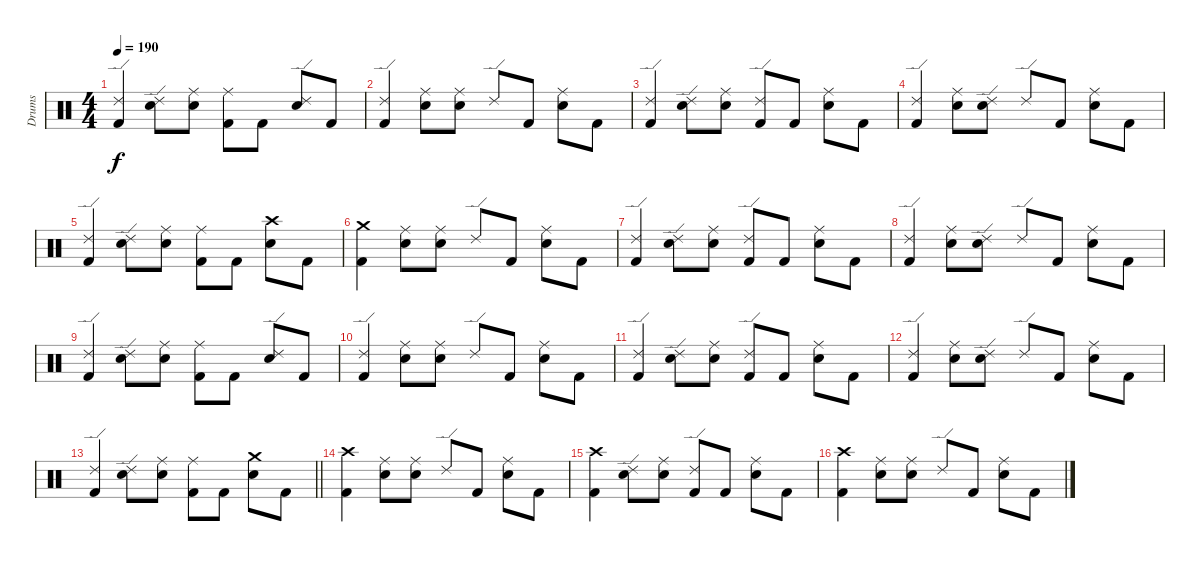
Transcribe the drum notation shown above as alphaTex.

\track ("Drums" "Drums") {instrument percussion}
\staff {score}
\articulation defaults
\ts (4 4)
\tempo 190
\clef neutral
\ks c
("Ride (edge) 2" "Kick (hit) 2").4{dy f} ("Ride (edge) 2" "Electric Snare (hit)").8 ("Ride (middle)" "Electric Snare (hit)").8 ("Ride (middle)" "Kick (hit) 2").8 "Kick (hit) 2".8 ("Ride (edge) 2" "Electric Snare (hit)").8 "Kick (hit) 2".8 |
("Ride (edge) 2" "Kick (hit) 2").4 ("Ride (middle)" "Electric Snare (hit)").8 ("Ride (middle)" "Electric Snare (hit)").8 "Ride (edge) 2".8 "Kick (hit) 2".8 ("Ride (middle)" "Electric Snare (hit)").8 "Kick (hit) 2".8 |
("Ride (edge) 2" "Kick (hit) 2").4 ("Ride (edge) 2" "Electric Snare (hit)").8 ("Ride (middle)" "Electric Snare (hit)").8 ("Ride (edge) 2" "Kick (hit) 2").8 "Kick (hit) 2".8 ("Ride (middle)" "Electric Snare (hit)").8 "Kick (hit) 2".8 |
("Ride (edge) 2" "Kick (hit) 2").4 ("Ride (middle)" "Electric Snare (hit)").8 ("Ride (edge) 2" "Electric Snare (hit)").8 "Ride (edge) 2".8 "Kick (hit) 2".8 ("Ride (middle)" "Electric Snare (hit)").8 "Kick (hit) 2".8 |
("Ride (edge) 2" "Kick (hit) 2").4 ("Ride (edge) 2" "Electric Snare (hit)").8 ("Ride (middle)" "Electric Snare (hit)").8 ("Ride (middle)" "Kick (hit) 2").8 "Kick (hit) 2".8 ("Crash high (hit)" "Electric Snare (hit)").8 "Kick (hit) 2".8 |
("Crash medium (hit)" "Kick (hit) 2").4 ("Ride (middle)" "Electric Snare (hit)").8 ("Ride (middle)" "Electric Snare (hit)").8 "Ride (edge) 2".8 "Kick (hit) 2".8 ("Ride (middle)" "Electric Snare (hit)").8 "Kick (hit) 2".8 |
("Ride (edge) 2" "Kick (hit) 2").4 ("Ride (edge) 2" "Electric Snare (hit)").8 ("Ride (middle)" "Electric Snare (hit)").8 ("Ride (edge) 2" "Kick (hit) 2").8 "Kick (hit) 2".8 ("Ride (middle)" "Electric Snare (hit)").8 "Kick (hit) 2".8 |
("Ride (edge) 2" "Kick (hit) 2").4 ("Ride (middle)" "Electric Snare (hit)").8 ("Ride (edge) 2" "Electric Snare (hit)").8 "Ride (edge) 2".8 "Kick (hit) 2".8 ("Ride (middle)" "Electric Snare (hit)").8 "Kick (hit) 2".8 |
("Ride (edge) 2" "Kick (hit) 2").4 ("Ride (edge) 2" "Electric Snare (hit)").8 ("Ride (middle)" "Electric Snare (hit)").8 ("Ride (middle)" "Kick (hit) 2").8 "Kick (hit) 2".8 ("Ride (edge) 2" "Electric Snare (hit)").8 "Kick (hit) 2".8 |
("Ride (edge) 2" "Kick (hit) 2").4 ("Ride (middle)" "Electric Snare (hit)").8 ("Ride (middle)" "Electric Snare (hit)").8 "Ride (edge) 2".8 "Kick (hit) 2".8 ("Ride (middle)" "Electric Snare (hit)").8 "Kick (hit) 2".8 |
("Ride (edge) 2" "Kick (hit) 2").4 ("Ride (edge) 2" "Electric Snare (hit)").8 ("Ride (middle)" "Electric Snare (hit)").8 ("Ride (edge) 2" "Kick (hit) 2").8 "Kick (hit) 2".8 ("Ride (middle)" "Electric Snare (hit)").8 "Kick (hit) 2".8 |
("Ride (edge) 2" "Kick (hit) 2").4 ("Ride (middle)" "Electric Snare (hit)").8 ("Ride (edge) 2" "Electric Snare (hit)").8 "Ride (edge) 2".8 "Kick (hit) 2".8 ("Ride (middle)" "Electric Snare (hit)").8 "Kick (hit) 2".8 |
\barLineRight lightlight
("Ride (edge) 2" "Kick (hit) 2").4 ("Ride (edge) 2" "Electric Snare (hit)").8 ("Ride (middle)" "Electric Snare (hit)").8 ("Ride (middle)" "Kick (hit) 2").8 "Kick (hit) 2".8 ("Crash medium (hit)" "Electric Snare (hit)").8 "Kick (hit) 2".8 |
\section ("" "")
("Crash high (hit)" "Kick (hit) 2").4 ("Ride (middle)" "Electric Snare (hit)").8 ("Ride (middle)" "Electric Snare (hit)").8 "Ride (edge) 2".8 "Kick (hit) 2".8 ("Ride (middle)" "Electric Snare (hit)").8 "Kick (hit) 2".8 |
("Crash high (hit)" "Kick (hit) 2").4 ("Ride (edge) 2" "Electric Snare (hit)").8 ("Ride (middle)" "Electric Snare (hit)").8 ("Ride (edge) 2" "Kick (hit) 2").8 "Kick (hit) 2".8 ("Ride (middle)" "Electric Snare (hit)").8 "Kick (hit) 2".8 |
("Crash high (hit)" "Kick (hit) 2").4 ("Ride (middle)" "Electric Snare (hit)").8 ("Ride (middle)" "Electric Snare (hit)").8 "Ride (edge) 2".8 "Kick (hit) 2".8 ("Ride (middle)" "Electric Snare (hit)").8 "Kick (hit) 2".8
